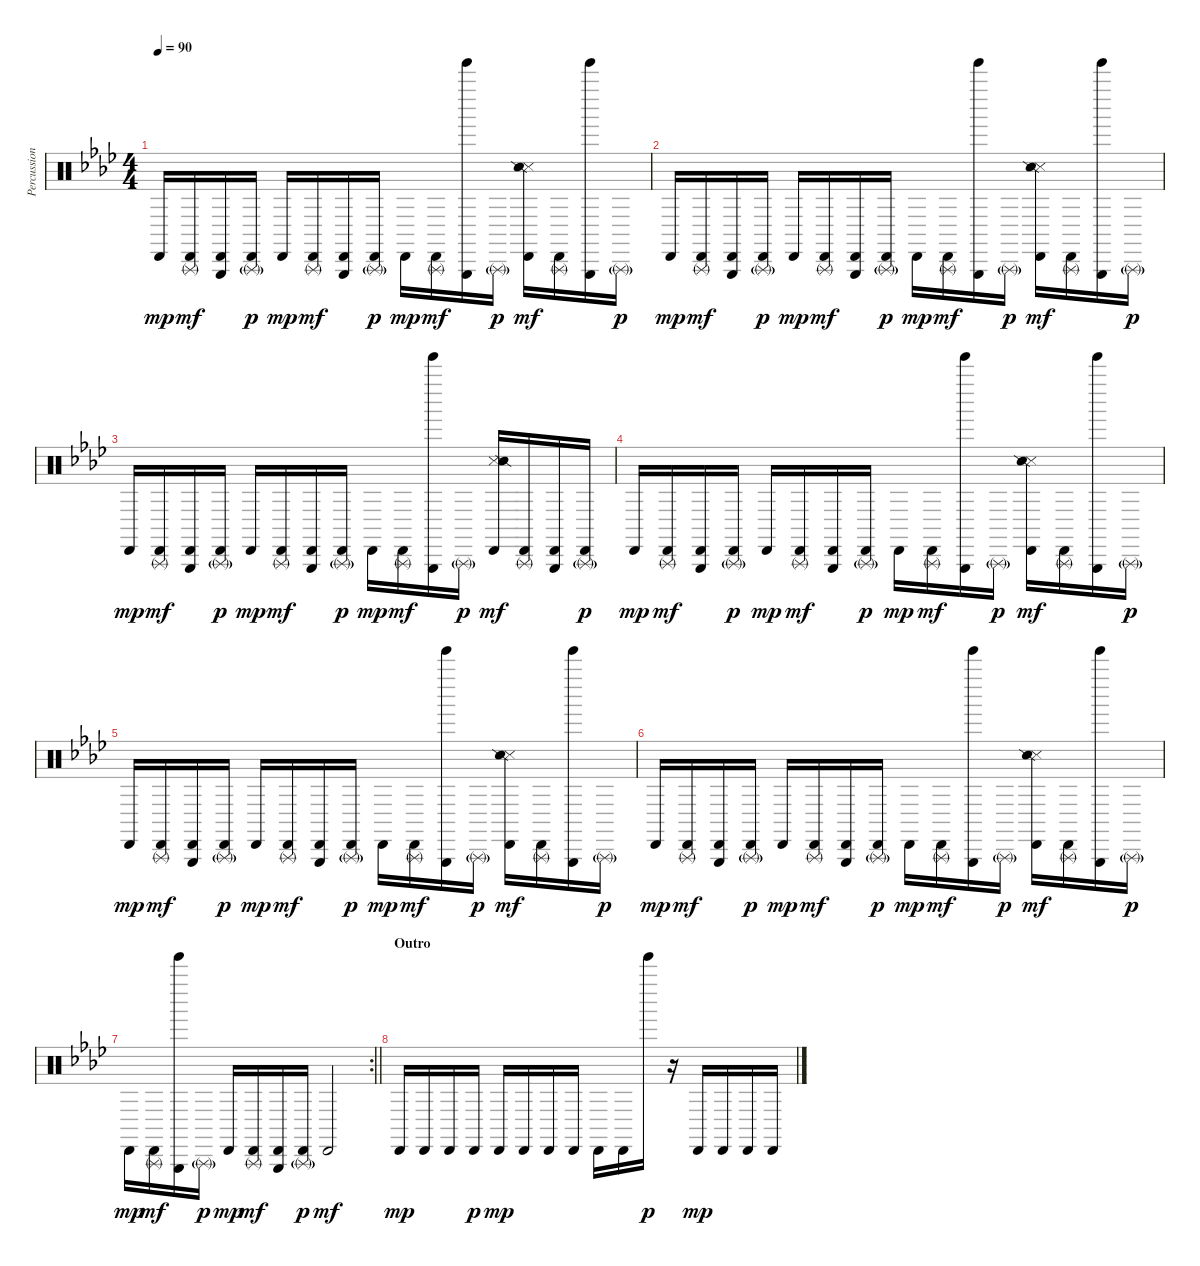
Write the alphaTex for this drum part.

\track ("Percussion" "Percussion") {instrument percussion}
\staff {score}
\articulation defaults
\ts (4 4)
\tempo 90
\clef neutral
\ks ab "Cabasa (hit)".16{dy mp}
("Cabasa (hit)" "Triangle (rnute)").16{dy mf} ("Cabasa (hit)" "Triangle (hit)").16 ("Cabasa (hit)" "Triangle (rnute)"{g}).16{dy p} "Cabasa (hit)".16{dy mp} ("Cabasa (hit)" "Triangle (rnute)").16{dy mf} ("Cabasa (hit)" "Triangle (hit)").16 ("Cabasa (hit)" "Triangle (rnute)"{g}).16{dy p} "Cabasa (hit)".16{dy mp} ("Cabasa (hit)" "Triangle (rnute)").16{dy mf} ("Tinkle Bell (hit)" "Triangle (hit)").16 "Triangle (rnute)"{g}.16{dy p} ("Cabasa (hit)" "Metronome (hit)" "Snare (side stick) 2").16{dy mf} ("Cabasa (hit)" "Triangle (rnute)").16 ("Tinkle Bell (hit)" "Triangle (hit)").16 "Triangle (rnute)"{g}.16{dy p} |
"Cabasa (hit)".16{dy mp} ("Cabasa (hit)" "Triangle (rnute)").16{dy mf} ("Cabasa (hit)" "Triangle (hit)").16 ("Cabasa (hit)" "Triangle (rnute)"{g}).16{dy p} "Cabasa (hit)".16{dy mp} ("Cabasa (hit)" "Triangle (rnute)").16{dy mf} ("Cabasa (hit)" "Triangle (hit)").16 ("Cabasa (hit)" "Triangle (rnute)"{g}).16{dy p} "Cabasa (hit)".16{dy mp} ("Cabasa (hit)" "Triangle (rnute)").16{dy mf} ("Tinkle Bell (hit)" "Triangle (hit)").16 "Triangle (rnute)"{g}.16{dy p} ("Cabasa (hit)" "Metronome (hit)" "Snare (side stick) 2").16{dy mf} ("Cabasa (hit)" "Triangle (rnute)").16 ("Tinkle Bell (hit)" "Triangle (hit)").16 "Triangle (rnute)"{g}.16{dy p} |
"Cabasa (hit)".16{dy mp} ("Cabasa (hit)" "Triangle (rnute)").16{dy mf} ("Cabasa (hit)" "Triangle (hit)").16 ("Cabasa (hit)" "Triangle (rnute)"{g}).16{dy p} "Cabasa (hit)".16{dy mp} ("Cabasa (hit)" "Triangle (rnute)").16{dy mf} ("Cabasa (hit)" "Triangle (hit)").16 ("Cabasa (hit)" "Triangle (rnute)"{g}).16{dy p} "Cabasa (hit)".16{dy mp} ("Cabasa (hit)" "Triangle (rnute)").16{dy mf} ("Tinkle Bell (hit)" "Triangle (hit)").16 "Triangle (rnute)"{g}.16{dy p} ("Cabasa (hit)" "Metronome (hit)" "Snare (side stick) 2").16{dy mf} ("Cabasa (hit)" "Triangle (rnute)").16 ("Cabasa (hit)" "Triangle (hit)").16 ("Cabasa (hit)" "Triangle (rnute)"{g}).16{dy p} |
"Cabasa (hit)".16{dy mp} ("Cabasa (hit)" "Triangle (rnute)").16{dy mf} ("Cabasa (hit)" "Triangle (hit)").16 ("Cabasa (hit)" "Triangle (rnute)"{g}).16{dy p} "Cabasa (hit)".16{dy mp} ("Cabasa (hit)" "Triangle (rnute)").16{dy mf} ("Cabasa (hit)" "Triangle (hit)").16 ("Cabasa (hit)" "Triangle (rnute)"{g}).16{dy p} "Cabasa (hit)".16{dy mp} ("Cabasa (hit)" "Triangle (rnute)").16{dy mf} ("Tinkle Bell (hit)" "Triangle (hit)").16 "Triangle (rnute)"{g}.16{dy p} ("Cabasa (hit)" "Metronome (hit)" "Snare (side stick) 2").16{dy mf} ("Cabasa (hit)" "Triangle (rnute)").16 ("Tinkle Bell (hit)" "Triangle (hit)").16 "Triangle (rnute)"{g}.16{dy p} |
"Cabasa (hit)".16{dy mp} ("Cabasa (hit)" "Triangle (rnute)").16{dy mf} ("Cabasa (hit)" "Triangle (hit)").16 ("Cabasa (hit)" "Triangle (rnute)"{g}).16{dy p} "Cabasa (hit)".16{dy mp} ("Cabasa (hit)" "Triangle (rnute)").16{dy mf} ("Cabasa (hit)" "Triangle (hit)").16 ("Cabasa (hit)" "Triangle (rnute)"{g}).16{dy p} "Cabasa (hit)".16{dy mp} ("Cabasa (hit)" "Triangle (rnute)").16{dy mf} ("Tinkle Bell (hit)" "Triangle (hit)").16 "Triangle (rnute)"{g}.16{dy p} ("Cabasa (hit)" "Metronome (hit)" "Snare (side stick) 2").16{dy mf} ("Cabasa (hit)" "Triangle (rnute)").16 ("Tinkle Bell (hit)" "Triangle (hit)").16 "Triangle (rnute)"{g}.16{dy p} |
"Cabasa (hit)".16{dy mp} ("Cabasa (hit)" "Triangle (rnute)").16{dy mf} ("Cabasa (hit)" "Triangle (hit)").16 ("Cabasa (hit)" "Triangle (rnute)"{g}).16{dy p} "Cabasa (hit)".16{dy mp} ("Cabasa (hit)" "Triangle (rnute)").16{dy mf} ("Cabasa (hit)" "Triangle (hit)").16 ("Cabasa (hit)" "Triangle (rnute)"{g}).16{dy p} "Cabasa (hit)".16{dy mp} ("Cabasa (hit)" "Triangle (rnute)").16{dy mf} ("Tinkle Bell (hit)" "Triangle (hit)").16 "Triangle (rnute)"{g}.16{dy p} ("Cabasa (hit)" "Metronome (hit)" "Snare (side stick) 2").16{dy mf} ("Cabasa (hit)" "Triangle (rnute)").16 ("Tinkle Bell (hit)" "Triangle (hit)").16 "Triangle (rnute)"{g}.16{dy p} |
\rc 2
\barLineRight lightlight "Cabasa (hit)".16{dy mp}
("Cabasa (hit)" "Triangle (rnute)").16{dy mf} ("Tinkle Bell (hit)" "Triangle (hit)").16 "Triangle (rnute)"{g}.16{dy p} "Cabasa (hit)".16{dy mp} ("Cabasa (hit)" "Triangle (rnute)").16{dy mf} ("Cabasa (hit)" "Triangle (hit)").16 ("Cabasa (hit)" "Triangle (rnute)"{g}).16{dy p} "Cabasa (hit)".2{dy mf} |
\section ("" "Outro")
"Cabasa (hit)".16{dy mp} "Cabasa (hit)".16 "Cabasa (hit)".16 "Cabasa (hit)".16{dy p} "Cabasa (hit)".16{dy mp} "Cabasa (hit)".16 "Cabasa (hit)".16 "Cabasa (hit)".16 "Cabasa (hit)".16 "Cabasa (hit)".16 "Tinkle Bell (hit)".16{dy p} r.16 "Cabasa (hit)".16{dy mp} "Cabasa (hit)".16 "Cabasa (hit)".16 "Cabasa (hit)".16
